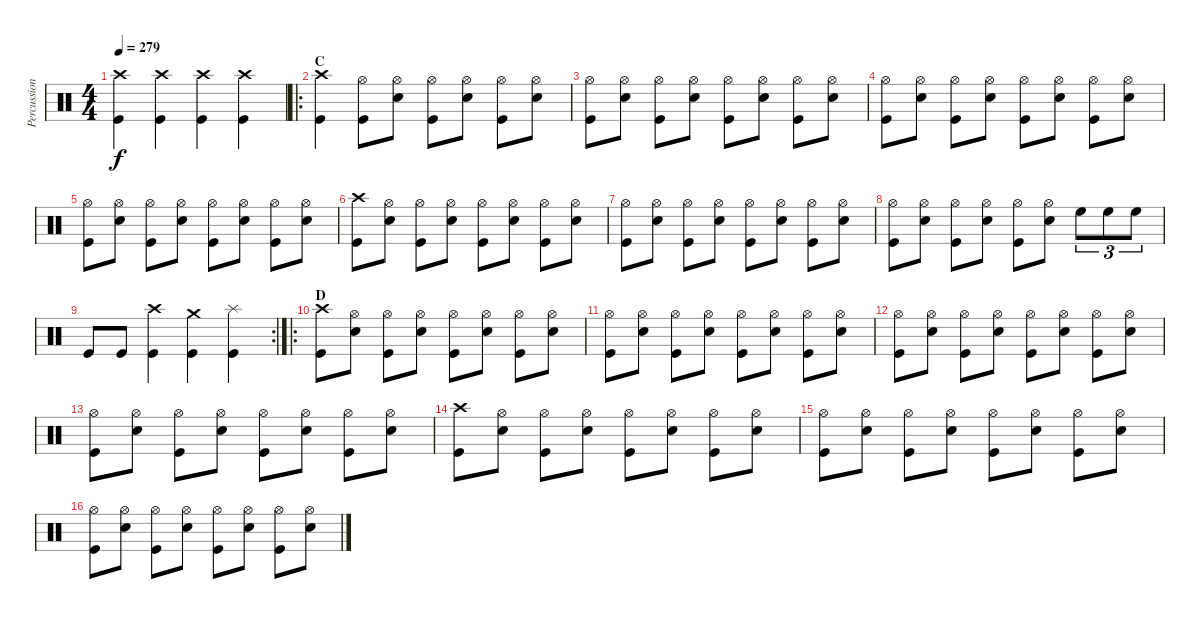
\track ("Percussion" "Percussion") {instrument percussion}
\staff {score}
\articulation defaults
\ts (4 4)
\tempo 279
\clef neutral
\ks c
("Crash high (hit)" "Kick (hit)").4{dy f} ("Crash high (hit)" "Kick (hit)").4 ("Crash high (hit)" "Kick (hit)").4 ("Crash high (hit)" "Kick (hit)").4 |
\ro
\section ("" "C")
("Crash high (hit)" "Kick (hit)").4 ("Hi-Hat (open)" "Kick (hit)").8 ("Hi-Hat (open)" "Snare (hit) 2").8 ("Hi-Hat (open)" "Kick (hit)").8 ("Hi-Hat (open)" "Snare (hit) 2").8 ("Hi-Hat (open)" "Kick (hit)").8 ("Hi-Hat (open)" "Snare (hit) 2").8 |
("Hi-Hat (open)" "Kick (hit)").8 ("Hi-Hat (open)" "Snare (hit) 2").8 ("Hi-Hat (open)" "Kick (hit)").8 ("Hi-Hat (open)" "Snare (hit) 2").8 ("Hi-Hat (open)" "Kick (hit)").8 ("Hi-Hat (open)" "Snare (hit) 2").8 ("Hi-Hat (open)" "Kick (hit)").8 ("Hi-Hat (open)" "Snare (hit) 2").8 |
("Hi-Hat (open)" "Kick (hit)").8 ("Hi-Hat (open)" "Snare (hit) 2").8 ("Hi-Hat (open)" "Kick (hit)").8 ("Hi-Hat (open)" "Snare (hit) 2").8 ("Hi-Hat (open)" "Kick (hit)").8 ("Hi-Hat (open)" "Snare (hit) 2").8 ("Hi-Hat (open)" "Kick (hit)").8 ("Hi-Hat (open)" "Snare (hit) 2").8 |
("Hi-Hat (open)" "Kick (hit)").8 ("Hi-Hat (open)" "Snare (hit) 2").8 ("Hi-Hat (open)" "Kick (hit)").8 ("Hi-Hat (open)" "Snare (hit) 2").8 ("Hi-Hat (open)" "Kick (hit)").8 ("Hi-Hat (open)" "Snare (hit) 2").8 ("Hi-Hat (open)" "Kick (hit)").8 ("Hi-Hat (open)" "Snare (hit) 2").8 |
("Crash high (hit)" "Kick (hit)").8 ("Hi-Hat (open)" "Snare (hit) 2").8 ("Hi-Hat (open)" "Kick (hit)").8 ("Hi-Hat (open)" "Snare (hit) 2").8 ("Hi-Hat (open)" "Kick (hit)").8 ("Hi-Hat (open)" "Snare (hit) 2").8 ("Hi-Hat (open)" "Kick (hit)").8 ("Hi-Hat (open)" "Snare (hit) 2").8 |
("Hi-Hat (open)" "Kick (hit)").8 ("Hi-Hat (open)" "Snare (hit) 2").8 ("Hi-Hat (open)" "Kick (hit)").8 ("Hi-Hat (open)" "Snare (hit) 2").8 ("Hi-Hat (open)" "Kick (hit)").8 ("Hi-Hat (open)" "Snare (hit) 2").8 ("Hi-Hat (open)" "Kick (hit)").8 ("Hi-Hat (open)" "Snare (hit) 2").8 |
("Hi-Hat (open)" "Kick (hit)").8 ("Hi-Hat (open)" "Snare (hit) 2").8 ("Hi-Hat (open)" "Kick (hit)").8 ("Hi-Hat (open)" "Snare (hit) 2").8 ("Hi-Hat (open)" "Kick (hit)").8 ("Hi-Hat (open)" "Snare (hit) 2").8 "High Floor Tom (hit)".8{tu (3 2)} "High Floor Tom (hit)".8{tu (3 2)} "High Floor Tom (hit)".8{tu (3 2)} |
\rc 2 "Kick (hit)".8 "Kick (hit)".8
("Crash high (hit)" "Kick (hit)").4 ("Crash medium (hit)" "Kick (hit)").4 ("Splash (hit)" "Kick (hit)").4 |
\ro
\section ("" "D")
("Crash high (hit)" "Kick (hit)").8 ("Hi-Hat (open)" "Snare (hit) 2").8 ("Hi-Hat (open)" "Kick (hit)").8 ("Hi-Hat (open)" "Snare (hit) 2").8 ("Hi-Hat (open)" "Kick (hit)").8 ("Hi-Hat (open)" "Snare (hit) 2").8 ("Hi-Hat (open)" "Kick (hit)").8 ("Hi-Hat (open)" "Snare (hit) 2").8 |
("Hi-Hat (open)" "Kick (hit)").8 ("Hi-Hat (open)" "Snare (hit) 2").8 ("Hi-Hat (open)" "Kick (hit)").8 ("Hi-Hat (open)" "Snare (hit) 2").8 ("Hi-Hat (open)" "Kick (hit)").8 ("Hi-Hat (open)" "Snare (hit) 2").8 ("Hi-Hat (open)" "Kick (hit)").8 ("Hi-Hat (open)" "Snare (hit) 2").8 |
("Hi-Hat (open)" "Kick (hit)").8 ("Hi-Hat (open)" "Snare (hit) 2").8 ("Hi-Hat (open)" "Kick (hit)").8 ("Hi-Hat (open)" "Snare (hit) 2").8 ("Hi-Hat (open)" "Kick (hit)").8 ("Hi-Hat (open)" "Snare (hit) 2").8 ("Hi-Hat (open)" "Kick (hit)").8 ("Hi-Hat (open)" "Snare (hit) 2").8 |
("Hi-Hat (open)" "Kick (hit)").8 ("Hi-Hat (open)" "Snare (hit) 2").8 ("Hi-Hat (open)" "Kick (hit)").8 ("Hi-Hat (open)" "Snare (hit) 2").8 ("Hi-Hat (open)" "Kick (hit)").8 ("Hi-Hat (open)" "Snare (hit) 2").8 ("Hi-Hat (open)" "Kick (hit)").8 ("Hi-Hat (open)" "Snare (hit) 2").8 |
("Crash high (hit)" "Kick (hit)").8 ("Hi-Hat (open)" "Snare (hit) 2").8 ("Hi-Hat (open)" "Kick (hit)").8 ("Hi-Hat (open)" "Snare (hit) 2").8 ("Hi-Hat (open)" "Kick (hit)").8 ("Hi-Hat (open)" "Snare (hit) 2").8 ("Hi-Hat (open)" "Kick (hit)").8 ("Hi-Hat (open)" "Snare (hit) 2").8 |
("Hi-Hat (open)" "Kick (hit)").8 ("Hi-Hat (open)" "Snare (hit) 2").8 ("Hi-Hat (open)" "Kick (hit)").8 ("Hi-Hat (open)" "Snare (hit) 2").8 ("Hi-Hat (open)" "Kick (hit)").8 ("Hi-Hat (open)" "Snare (hit) 2").8 ("Hi-Hat (open)" "Kick (hit)").8 ("Hi-Hat (open)" "Snare (hit) 2").8 |
("Hi-Hat (open)" "Kick (hit)").8 ("Hi-Hat (open)" "Snare (hit) 2").8 ("Hi-Hat (open)" "Kick (hit)").8 ("Hi-Hat (open)" "Snare (hit) 2").8 ("Hi-Hat (open)" "Kick (hit)").8 ("Hi-Hat (open)" "Snare (hit) 2").8 ("Hi-Hat (open)" "Kick (hit)").8 ("Hi-Hat (open)" "Snare (hit) 2").8
